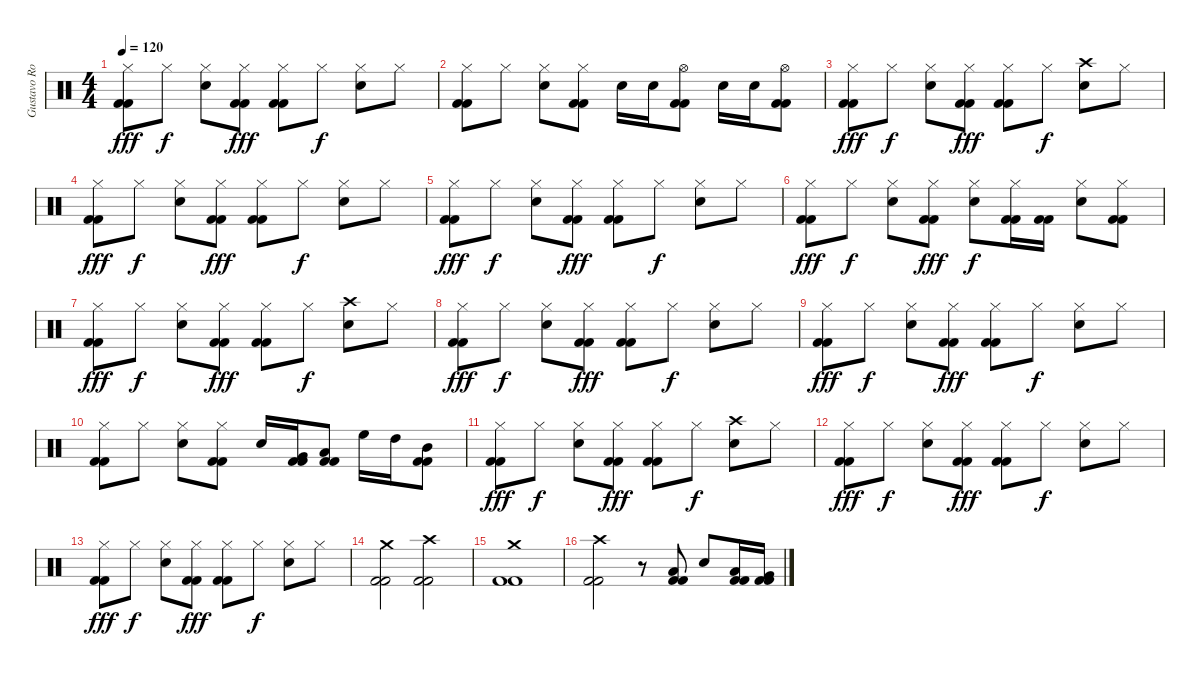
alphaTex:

\track ("Gustavo Rowek" "Gustavo Ro") {instrument percussion}
\staff {score}
\articulation defaults
\ts (4 4)
\tempo 120
\clef neutral
\ks c
("Kick (hit) 2" "Kick (hit) 2" "Hi-Hat (closed)").8{dy fff} "Hi-Hat (closed)".8{dy f} ("Snare (hit) 2" "Hi-Hat (closed)").8 ("Kick (hit) 2" "Kick (hit) 2" "Hi-Hat (closed)").8{dy fff} ("Kick (hit) 2" "Kick (hit) 2" "Hi-Hat (closed)").8 "Hi-Hat (closed)".8{dy f} ("Snare (hit) 2" "Hi-Hat (closed)").8 "Hi-Hat (closed)".8 |
("Kick (hit) 2" "Kick (hit) 2" "Hi-Hat (closed)").8 "Hi-Hat (closed)".8 ("Snare (hit) 2" "Hi-Hat (closed)").8 ("Kick (hit) 2" "Kick (hit) 2" "Hi-Hat (closed)").8 "Snare (hit) 2".16 "Snare (hit) 2".16 ("Kick (hit) 2" "Kick (hit) 2" "Hi-Hat (open)").8 "Snare (hit) 2".16 "Snare (hit) 2".16 ("Kick (hit) 2" "Kick (hit) 2" "Hi-Hat (open)").8 |
("Kick (hit) 2" "Kick (hit) 2" "Hi-Hat (closed)").8{dy fff} "Hi-Hat (closed)".8{dy f} ("Snare (hit) 2" "Hi-Hat (closed)").8 ("Kick (hit) 2" "Kick (hit) 2" "Hi-Hat (closed)").8{dy fff} ("Kick (hit) 2" "Kick (hit) 2" "Hi-Hat (closed)").8 "Hi-Hat (closed)".8{dy f} ("Snare (hit) 2" "Crash high (hit)").8 "Hi-Hat (closed)".8 |
("Kick (hit) 2" "Kick (hit) 2" "Hi-Hat (closed)").8{dy fff} "Hi-Hat (closed)".8{dy f} ("Snare (hit) 2" "Hi-Hat (closed)").8 ("Kick (hit) 2" "Kick (hit) 2" "Hi-Hat (closed)").8{dy fff} ("Kick (hit) 2" "Kick (hit) 2" "Hi-Hat (closed)").8 "Hi-Hat (closed)".8{dy f} ("Snare (hit) 2" "Hi-Hat (closed)").8 "Hi-Hat (closed)".8 |
("Kick (hit) 2" "Kick (hit) 2" "Hi-Hat (closed)").8{dy fff} "Hi-Hat (closed)".8{dy f} ("Snare (hit) 2" "Hi-Hat (closed)").8 ("Kick (hit) 2" "Kick (hit) 2" "Hi-Hat (closed)").8{dy fff} ("Kick (hit) 2" "Kick (hit) 2" "Hi-Hat (closed)").8 "Hi-Hat (closed)".8{dy f} ("Snare (hit) 2" "Hi-Hat (closed)").8 "Hi-Hat (closed)".8 |
("Kick (hit) 2" "Kick (hit) 2" "Hi-Hat (closed)").8{dy fff} "Hi-Hat (closed)".8{dy f} ("Snare (hit) 2" "Hi-Hat (closed)").8 ("Kick (hit) 2" "Kick (hit) 2" "Hi-Hat (closed)").8{dy fff} ("Snare (hit) 2" "Hi-Hat (closed)").8{dy f} ("Kick (hit) 2" "Kick (hit) 2" "Hi-Hat (closed)").16 ("Kick (hit) 2" "Kick (hit) 2").16 ("Snare (hit) 2" "Hi-Hat (closed)").8 ("Kick (hit) 2" "Kick (hit) 2" "Hi-Hat (closed)").8 |
("Kick (hit) 2" "Kick (hit) 2" "Hi-Hat (closed)").8{dy fff} "Hi-Hat (closed)".8{dy f} ("Snare (hit) 2" "Hi-Hat (closed)").8 ("Kick (hit) 2" "Kick (hit) 2" "Hi-Hat (closed)").8{dy fff} ("Kick (hit) 2" "Kick (hit) 2" "Hi-Hat (closed)").8 "Hi-Hat (closed)".8{dy f} ("Snare (hit) 2" "Crash high (hit)").8 "Hi-Hat (closed)".8 |
("Kick (hit) 2" "Kick (hit) 2" "Hi-Hat (closed)").8{dy fff} "Hi-Hat (closed)".8{dy f} ("Snare (hit) 2" "Hi-Hat (closed)").8 ("Kick (hit) 2" "Kick (hit) 2" "Hi-Hat (closed)").8{dy fff} ("Kick (hit) 2" "Kick (hit) 2" "Hi-Hat (closed)").8 "Hi-Hat (closed)".8{dy f} ("Snare (hit) 2" "Hi-Hat (closed)").8 "Hi-Hat (closed)".8 |
("Kick (hit) 2" "Kick (hit) 2" "Hi-Hat (closed)").8{dy fff} "Hi-Hat (closed)".8{dy f} ("Snare (hit) 2" "Hi-Hat (closed)").8 ("Kick (hit) 2" "Kick (hit) 2" "Hi-Hat (closed)").8{dy fff} ("Kick (hit) 2" "Kick (hit) 2" "Hi-Hat (closed)").8 "Hi-Hat (closed)".8{dy f} ("Snare (hit) 2" "Hi-Hat (closed)").8 "Hi-Hat (closed)".8 |
("Kick (hit) 2" "Kick (hit) 2" "Hi-Hat (closed)").8 "Hi-Hat (closed)".8 ("Snare (hit) 2" "Hi-Hat (closed)").8 ("Kick (hit) 2" "Kick (hit) 2" "Hi-Hat (closed)").8 "Snare (hit) 2".16 ("Kick (hit) 2" "Kick (hit) 2" "Very Low Tom (hit)").16 ("Kick (hit) 2" "Kick (hit) 2" "Low Floor Tom (hit)").8 "High Floor Tom (hit)".16 "High Tom (hit)".16 ("Kick (hit) 2" "Kick (hit) 2" "Mid Tom (hit)").8 |
("Kick (hit) 2" "Kick (hit) 2" "Hi-Hat (closed)").8{dy fff} "Hi-Hat (closed)".8{dy f} ("Snare (hit) 2" "Hi-Hat (closed)").8 ("Kick (hit) 2" "Kick (hit) 2" "Hi-Hat (closed)").8{dy fff} ("Kick (hit) 2" "Kick (hit) 2" "Hi-Hat (closed)").8 "Hi-Hat (closed)".8{dy f} ("Snare (hit) 2" "Crash high (hit)").8 "Hi-Hat (closed)".8 |
("Kick (hit) 2" "Kick (hit) 2" "Hi-Hat (closed)").8{dy fff} "Hi-Hat (closed)".8{dy f} ("Snare (hit) 2" "Hi-Hat (closed)").8 ("Kick (hit) 2" "Kick (hit) 2" "Hi-Hat (closed)").8{dy fff} ("Kick (hit) 2" "Kick (hit) 2" "Hi-Hat (closed)").8 "Hi-Hat (closed)".8{dy f} ("Snare (hit) 2" "Hi-Hat (closed)").8 "Hi-Hat (closed)".8 |
("Kick (hit) 2" "Kick (hit) 2" "Hi-Hat (closed)").8{dy fff} "Hi-Hat (closed)".8{dy f} ("Snare (hit) 2" "Hi-Hat (closed)").8 ("Kick (hit) 2" "Kick (hit) 2" "Hi-Hat (closed)").8{dy fff} ("Kick (hit) 2" "Kick (hit) 2" "Hi-Hat (closed)").8 "Hi-Hat (closed)".8{dy f} ("Snare (hit) 2" "Hi-Hat (closed)").8 "Hi-Hat (closed)".8 |
("Kick (hit) 2" "Kick (hit) 2" "Crash medium (hit)").2 ("Kick (hit) 2" "Kick (hit) 2" "Crash high (hit)").2 |
("Kick (hit) 2" "Kick (hit) 2" "Crash medium (hit)").1 |
("Kick (hit) 2" "Kick (hit) 2" "Crash high (hit)").2 r.8 ("Kick (hit) 2" "Kick (hit) 2" "Low Floor Tom (hit)").8 "Snare (hit) 2".8 ("Kick (hit) 2" "Kick (hit) 2" "Low Floor Tom (hit)").16 ("Kick (hit) 2" "Kick (hit) 2" "Very Low Tom (hit)").16
